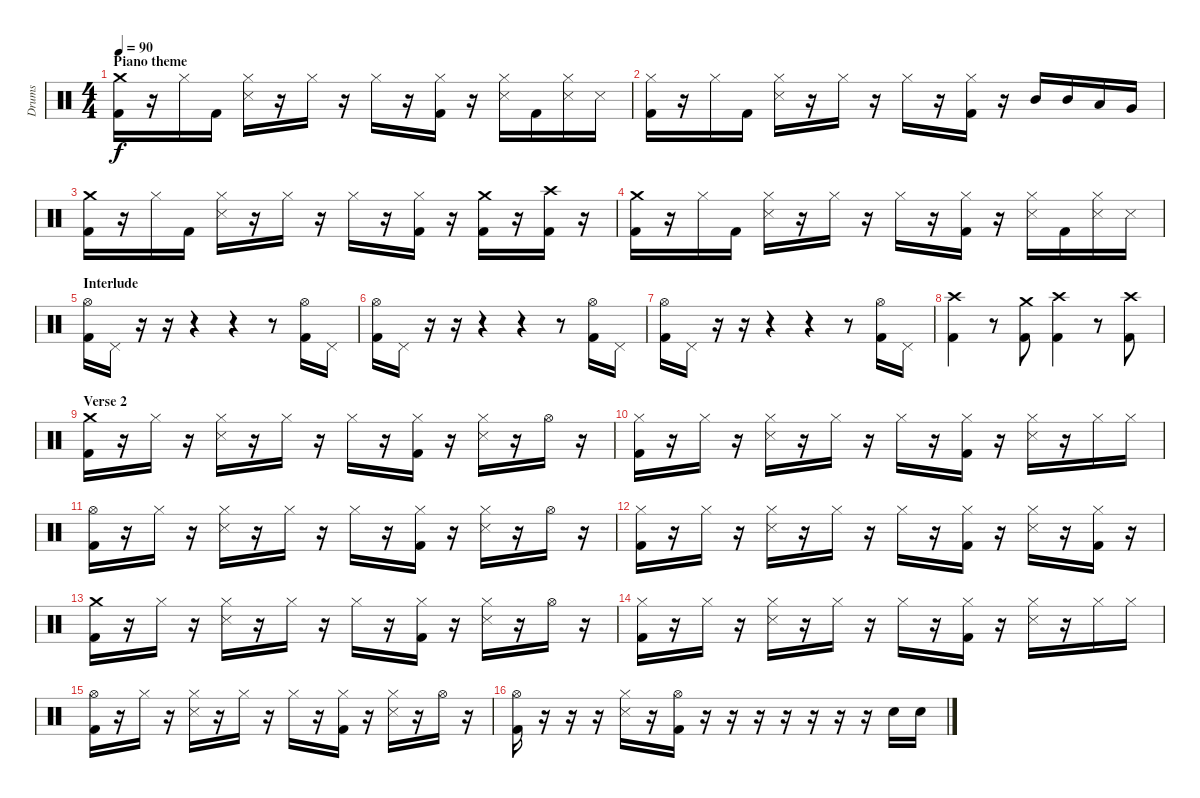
\track ("Drums" "Drums") {instrument percussion}
\staff {score}
\articulation defaults
\ts (4 4)
\section ("" "Piano theme")
\tempo 90
\clef neutral
\ks c
("Crash medium (hit)" "Kick (hit) 2").16{dy f} r.16 "Hi-Hat (closed)".16 "Kick (hit) 2".16 ("Hi-Hat (closed)" "Snare (side stick) 3").16 r.16 "Hi-Hat (closed)".16 r.16 "Hi-Hat (closed)".16 r.16 ("Hi-Hat (closed)" "Kick (hit) 2").16 r.16 ("Hi-Hat (closed)" "Snare (side stick) 3").16 "Kick (hit) 2".16 ("Hi-Hat (closed)" "Snare (side stick) 3").16 "Snare (side stick) 3".16 |
("Hi-Hat (closed)" "Kick (hit) 2").16 r.16 "Hi-Hat (closed)".16 "Kick (hit) 2".16 ("Hi-Hat (closed)" "Snare (side stick) 3").16 r.16 "Hi-Hat (closed)".16 r.16 "Hi-Hat (closed)".16 r.16 ("Hi-Hat (closed)" "Kick (hit) 2").16 r.16 "Mid Tom (hit)".16 "Mid Tom (hit)".16 "Low Tom (hit)".16 "Very Low Tom (hit)".16 |
("Crash medium (hit)" "Kick (hit) 2").16 r.16 "Hi-Hat (closed)".16 "Kick (hit) 2".16 ("Hi-Hat (closed)" "Snare (side stick) 3").16 r.16 "Hi-Hat (closed)".16 r.16 "Hi-Hat (closed)".16 r.16 ("Hi-Hat (closed)" "Kick (hit) 2").16 r.16 ("Crash medium (hit)" "Kick (hit) 2").16 r.16 ("Crash high (hit)" "Kick (hit) 2").16 r.16 |
("Crash medium (hit)" "Kick (hit) 2").16 r.16 "Hi-Hat (closed)".16 "Kick (hit) 2".16 ("Hi-Hat (closed)" "Snare (side stick) 3").16 r.16 "Hi-Hat (closed)".16 r.16 "Hi-Hat (closed)".16 r.16 ("Hi-Hat (closed)" "Kick (hit) 2").16 r.16 ("Hi-Hat (closed)" "Snare (side stick) 3").16 "Kick (hit) 2".16 ("Hi-Hat (closed)" "Snare (side stick) 3").16 "Snare (side stick) 3".16 |
\section ("" "Interlude")
("Hi-Hat (open)" "Kick (hit) 2").16 "Pedal Hi-Hat (hit)".16 r.16 r.16 r.4 r.4 r.8 ("Hi-Hat (open)" "Kick (hit) 2").16 "Pedal Hi-Hat (hit)".16 |
("Hi-Hat (open)" "Kick (hit) 2").16 "Pedal Hi-Hat (hit)".16 r.16 r.16 r.4 r.4 r.8 ("Hi-Hat (open)" "Kick (hit) 2").16 "Pedal Hi-Hat (hit)".16 |
("Hi-Hat (open)" "Kick (hit) 2").16 "Pedal Hi-Hat (hit)".16 r.16 r.16 r.4 r.4 r.8 ("Hi-Hat (open)" "Kick (hit) 2").16 "Pedal Hi-Hat (hit)".16 |
("Crash high (hit)" "Kick (hit) 2").4 r.8 ("Crash medium (hit)" "Kick (hit) 2").8 ("Crash high (hit)" "Kick (hit) 2").4 r.8 ("Crash high (hit)" "Kick (hit) 2").8 |
\section ("" "Verse 2")
("Crash medium (hit)" "Kick (hit) 2").16 r.16 "Hi-Hat (closed)".16 r.16 ("Hi-Hat (closed)" "Snare (side stick) 3").16 r.16 "Hi-Hat (closed)".16 r.16 "Hi-Hat (closed)".16 r.16 ("Hi-Hat (closed)" "Kick (hit) 2").16 r.16 ("Hi-Hat (closed)" "Snare (side stick) 3").16 r.16 "Hi-Hat (open)".16 r.16 |
("Hi-Hat (closed)" "Kick (hit) 2").16 r.16 "Hi-Hat (closed)".16 r.16 ("Hi-Hat (closed)" "Snare (side stick) 3").16 r.16 "Hi-Hat (closed)".16 r.16 "Hi-Hat (closed)".16 r.16 ("Hi-Hat (closed)" "Kick (hit) 2").16 r.16 ("Hi-Hat (closed)" "Snare (side stick) 3").16 r.16 "Hi-Hat (closed)".16 "Hi-Hat (closed)".16 |
("Hi-Hat (open)" "Kick (hit) 2").16 r.16 "Hi-Hat (closed)".16 r.16 ("Hi-Hat (closed)" "Snare (side stick) 3").16 r.16 "Hi-Hat (closed)".16 r.16 "Hi-Hat (closed)".16 r.16 ("Hi-Hat (closed)" "Kick (hit) 2").16 r.16 ("Hi-Hat (closed)" "Snare (side stick) 3").16 r.16 "Hi-Hat (open)".16 r.16 |
("Hi-Hat (closed)" "Kick (hit) 2").16 r.16 "Hi-Hat (closed)".16 r.16 ("Hi-Hat (closed)" "Snare (side stick) 3").16 r.16 "Hi-Hat (closed)".16 r.16 "Hi-Hat (closed)".16 r.16 ("Hi-Hat (closed)" "Kick (hit) 2").16 r.16 ("Hi-Hat (closed)" "Snare (side stick) 3").16 r.16 ("Hi-Hat (closed)" "Kick (hit) 2").16 r.16 |
("Crash medium (hit)" "Kick (hit) 2").16 r.16 "Hi-Hat (closed)".16 r.16 ("Hi-Hat (closed)" "Snare (side stick) 3").16 r.16 "Hi-Hat (closed)".16 r.16 "Hi-Hat (closed)".16 r.16 ("Hi-Hat (closed)" "Kick (hit) 2").16 r.16 ("Hi-Hat (closed)" "Snare (side stick) 3").16 r.16 "Hi-Hat (open)".16 r.16 |
("Hi-Hat (closed)" "Kick (hit) 2").16 r.16 "Hi-Hat (closed)".16 r.16 ("Hi-Hat (closed)" "Snare (side stick) 3").16 r.16 "Hi-Hat (closed)".16 r.16 "Hi-Hat (closed)".16 r.16 ("Hi-Hat (closed)" "Kick (hit) 2").16 r.16 ("Hi-Hat (closed)" "Snare (side stick) 3").16 r.16 "Hi-Hat (closed)".16 "Hi-Hat (closed)".16 |
("Hi-Hat (open)" "Kick (hit) 2").16 r.16 "Hi-Hat (closed)".16 r.16 ("Hi-Hat (closed)" "Snare (side stick) 3").16 r.16 "Hi-Hat (closed)".16 r.16 "Hi-Hat (closed)".16 r.16 ("Hi-Hat (closed)" "Kick (hit) 2").16 r.16 ("Hi-Hat (closed)" "Snare (side stick) 3").16 r.16 "Hi-Hat (open)".16 r.16 |
("Hi-Hat (open)" "Kick (hit) 2").16 r.16 r.16 r.16 ("Hi-Hat (closed)" "Snare (side stick) 3").16 r.16 ("Hi-Hat (open)" "Kick (hit) 2").16 r.16 r.16 r.16 r.16 r.16 r.16 r.16 "Electric Snare (hit)".16 "Electric Snare (hit)".16
